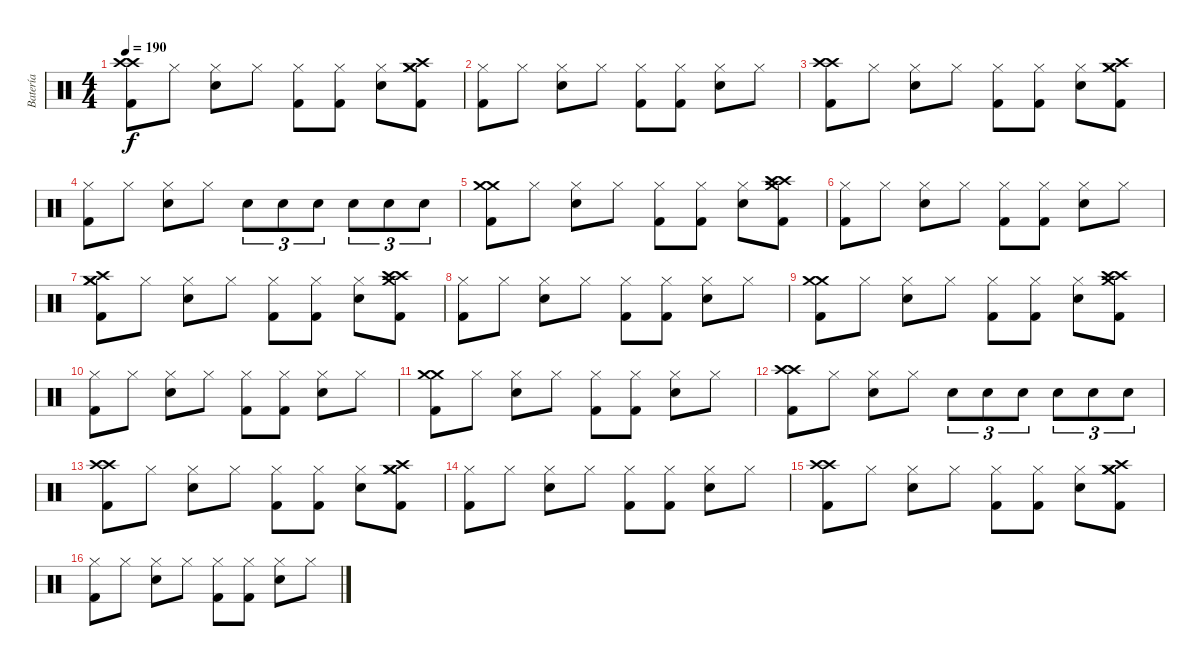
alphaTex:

\track ("Batería" "Batería") {instrument percussion}
\staff {score}
\articulation defaults
\ts (4 4)
\tempo 190
\clef neutral
\ks c
("Crash high (hit)" "Crash high (hit)" "Kick (hit) 2").8{dy f} "Hi-Hat (closed)".8 ("Hi-Hat (closed)" "Snare (hit) 2").8 "Hi-Hat (closed)".8 ("Hi-Hat (closed)" "Kick (hit) 2").8 ("Hi-Hat (closed)" "Kick (hit) 2").8 ("Hi-Hat (closed)" "Snare (hit) 2").8 ("Crash medium (hit)" "Crash high (hit)" "Crash medium (hit)" "Kick (hit) 2").8 |
("Hi-Hat (closed)" "Kick (hit) 2").8 "Hi-Hat (closed)".8 ("Hi-Hat (closed)" "Snare (hit) 2").8 "Hi-Hat (closed)".8 ("Hi-Hat (closed)" "Kick (hit) 2").8 ("Hi-Hat (closed)" "Kick (hit) 2").8 ("Hi-Hat (closed)" "Snare (hit) 2").8 "Hi-Hat (closed)".8 |
("Crash high (hit)" "Crash high (hit)" "Kick (hit) 2").8 "Hi-Hat (closed)".8 ("Hi-Hat (closed)" "Snare (hit) 2").8 "Hi-Hat (closed)".8 ("Hi-Hat (closed)" "Kick (hit) 2").8 ("Hi-Hat (closed)" "Kick (hit) 2").8 ("Hi-Hat (closed)" "Snare (hit) 2").8 ("Crash medium (hit)" "Crash high (hit)" "Crash medium (hit)" "Kick (hit) 2").8 |
("Hi-Hat (closed)" "Kick (hit) 2").8 "Hi-Hat (closed)".8 ("Hi-Hat (closed)" "Snare (hit) 2").8 "Hi-Hat (closed)".8 "Snare (hit) 2".8{tu (3 2)} "Snare (hit) 2".8{tu (3 2)} "Snare (hit) 2".8{tu (3 2)} "Snare (hit) 2".8{tu (3 2)} "Snare (hit) 2".8{tu (3 2)} "Snare (hit) 2".8{tu (3 2)} |
("Crash medium (hit)" "Crash medium (hit)" "Kick (hit) 2").8 "Hi-Hat (closed)".8 ("Hi-Hat (closed)" "Snare (hit) 2").8 "Hi-Hat (closed)".8 ("Hi-Hat (closed)" "Kick (hit) 2").8 ("Hi-Hat (closed)" "Kick (hit) 2").8 ("Hi-Hat (closed)" "Snare (hit) 2").8 ("Crash high (hit)" "Crash medium (hit)" "Crash high (hit)" "Kick (hit) 2").8 |
("Hi-Hat (closed)" "Kick (hit) 2").8 "Hi-Hat (closed)".8 ("Hi-Hat (closed)" "Snare (hit) 2").8 "Hi-Hat (closed)".8 ("Hi-Hat (closed)" "Kick (hit) 2").8 ("Hi-Hat (closed)" "Kick (hit) 2").8 ("Hi-Hat (closed)" "Snare (hit) 2").8 "Hi-Hat (closed)".8 |
("Crash medium (hit)" "Crash medium (hit)" "Crash high (hit)" "Kick (hit) 2").8 "Hi-Hat (closed)".8 ("Hi-Hat (closed)" "Snare (hit) 2").8 "Hi-Hat (closed)".8 ("Hi-Hat (closed)" "Kick (hit) 2").8 ("Hi-Hat (closed)" "Kick (hit) 2").8 ("Hi-Hat (closed)" "Snare (hit) 2").8 ("Crash high (hit)" "Crash medium (hit)" "Crash high (hit)" "Kick (hit) 2").8 |
("Hi-Hat (closed)" "Kick (hit) 2").8 "Hi-Hat (closed)".8 ("Hi-Hat (closed)" "Snare (hit) 2").8 "Hi-Hat (closed)".8 ("Hi-Hat (closed)" "Kick (hit) 2").8 ("Hi-Hat (closed)" "Kick (hit) 2").8 ("Hi-Hat (closed)" "Snare (hit) 2").8 "Hi-Hat (closed)".8 |
("Crash medium (hit)" "Crash medium (hit)" "Kick (hit) 2").8 "Hi-Hat (closed)".8 ("Hi-Hat (closed)" "Snare (hit) 2").8 "Hi-Hat (closed)".8 ("Hi-Hat (closed)" "Kick (hit) 2").8 ("Hi-Hat (closed)" "Kick (hit) 2").8 ("Hi-Hat (closed)" "Snare (hit) 2").8 ("Crash high (hit)" "Crash medium (hit)" "Crash high (hit)" "Kick (hit) 2").8 |
("Hi-Hat (closed)" "Kick (hit) 2").8 "Hi-Hat (closed)".8 ("Hi-Hat (closed)" "Snare (hit) 2").8 "Hi-Hat (closed)".8 ("Hi-Hat (closed)" "Kick (hit) 2").8 ("Hi-Hat (closed)" "Kick (hit) 2").8 ("Hi-Hat (closed)" "Snare (hit) 2").8 "Hi-Hat (closed)".8 |
("Crash medium (hit)" "Crash medium (hit)" "Kick (hit) 2").8 "Hi-Hat (closed)".8 ("Hi-Hat (closed)" "Snare (hit) 2").8 "Hi-Hat (closed)".8 ("Hi-Hat (closed)" "Kick (hit) 2").8 ("Hi-Hat (closed)" "Kick (hit) 2").8 ("Hi-Hat (closed)" "Snare (hit) 2").8 "Hi-Hat (closed)".8 |
("Crash high (hit)" "Crash high (hit)" "Kick (hit) 2").8 "Hi-Hat (closed)".8 ("Hi-Hat (closed)" "Snare (hit) 2").8 "Hi-Hat (closed)".8 "Snare (hit) 2".8{tu (3 2)} "Snare (hit) 2".8{tu (3 2)} "Snare (hit) 2".8{tu (3 2)} "Snare (hit) 2".8{tu (3 2)} "Snare (hit) 2".8{tu (3 2)} "Snare (hit) 2".8{tu (3 2)} |
("Crash high (hit)" "Crash high (hit)" "Kick (hit) 2").8 "Hi-Hat (closed)".8 ("Hi-Hat (closed)" "Snare (hit) 2").8 "Hi-Hat (closed)".8 ("Hi-Hat (closed)" "Kick (hit) 2").8 ("Hi-Hat (closed)" "Kick (hit) 2").8 ("Hi-Hat (closed)" "Snare (hit) 2").8 ("Crash medium (hit)" "Crash high (hit)" "Crash medium (hit)" "Kick (hit) 2").8 |
("Hi-Hat (closed)" "Kick (hit) 2").8 "Hi-Hat (closed)".8 ("Hi-Hat (closed)" "Snare (hit) 2").8 "Hi-Hat (closed)".8 ("Hi-Hat (closed)" "Kick (hit) 2").8 ("Hi-Hat (closed)" "Kick (hit) 2").8 ("Hi-Hat (closed)" "Snare (hit) 2").8 "Hi-Hat (closed)".8 |
("Crash high (hit)" "Crash high (hit)" "Kick (hit) 2").8 "Hi-Hat (closed)".8 ("Hi-Hat (closed)" "Snare (hit) 2").8 "Hi-Hat (closed)".8 ("Hi-Hat (closed)" "Kick (hit) 2").8 ("Hi-Hat (closed)" "Kick (hit) 2").8 ("Hi-Hat (closed)" "Snare (hit) 2").8 ("Crash medium (hit)" "Crash medium (hit)" "Crash high (hit)" "Kick (hit) 2").8 |
("Hi-Hat (closed)" "Kick (hit) 2").8 "Hi-Hat (closed)".8 ("Hi-Hat (closed)" "Snare (hit) 2").8 "Hi-Hat (closed)".8 ("Hi-Hat (closed)" "Kick (hit) 2").8 ("Hi-Hat (closed)" "Kick (hit) 2").8 ("Hi-Hat (closed)" "Snare (hit) 2").8 "Hi-Hat (closed)".8
